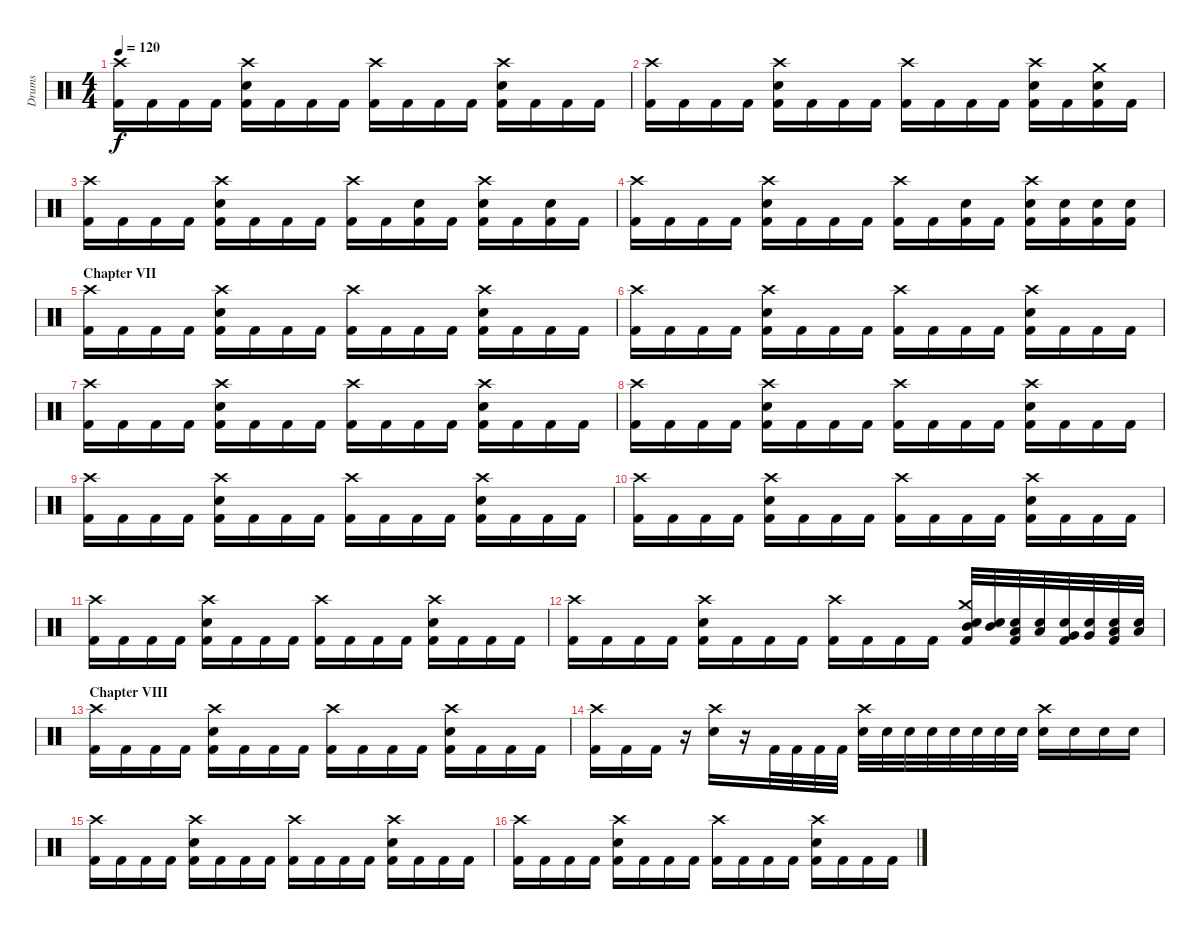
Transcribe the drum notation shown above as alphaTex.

\track ("Drums" "Drums") {instrument percussion}
\staff {score}
\articulation defaults
\ts (4 4)
\tempo 120
\clef neutral
\ks c
("Crash high (hit)" "Kick (hit) 2").16{dy f} "Kick (hit) 2".16 "Kick (hit) 2".16 "Kick (hit) 2".16 ("Crash high (hit)" "Electric Snare (hit)" "Kick (hit) 2").16 "Kick (hit) 2".16 "Kick (hit) 2".16 "Kick (hit) 2".16 ("Crash high (hit)" "Kick (hit) 2").16 "Kick (hit) 2".16 "Kick (hit) 2".16 "Kick (hit) 2".16 ("Crash high (hit)" "Electric Snare (hit)" "Kick (hit) 2").16 "Kick (hit) 2".16 "Kick (hit) 2".16 "Kick (hit) 2".16 |
("Crash high (hit)" "Kick (hit) 2").16 "Kick (hit) 2".16 "Kick (hit) 2".16 "Kick (hit) 2".16 ("Crash high (hit)" "Electric Snare (hit)" "Kick (hit) 2").16 "Kick (hit) 2".16 "Kick (hit) 2".16 "Kick (hit) 2".16 ("Crash high (hit)" "Kick (hit) 2").16 "Kick (hit) 2".16 "Kick (hit) 2".16 "Kick (hit) 2".16 ("Crash high (hit)" "Electric Snare (hit)" "Kick (hit) 2").16 "Kick (hit) 2".16 ("Crash medium (hit)" "Electric Snare (hit)" "Kick (hit) 2").16 "Kick (hit) 2".16 |
("Crash high (hit)" "Kick (hit) 2").16 "Kick (hit) 2".16 "Kick (hit) 2".16 "Kick (hit) 2".16 ("Crash high (hit)" "Electric Snare (hit)" "Kick (hit) 2").16 "Kick (hit) 2".16 "Kick (hit) 2".16 "Kick (hit) 2".16 ("Crash high (hit)" "Kick (hit) 2").16 "Kick (hit) 2".16 ("Electric Snare (hit)" "Kick (hit) 2").16 "Kick (hit) 2".16 ("Crash high (hit)" "Electric Snare (hit)" "Kick (hit) 2").16 "Kick (hit) 2".16 ("Electric Snare (hit)" "Kick (hit) 2").16 "Kick (hit) 2".16 |
("Crash high (hit)" "Kick (hit) 2").16 "Kick (hit) 2".16 "Kick (hit) 2".16 "Kick (hit) 2".16 ("Crash high (hit)" "Electric Snare (hit)" "Kick (hit) 2").16 "Kick (hit) 2".16 "Kick (hit) 2".16 "Kick (hit) 2".16 ("Crash high (hit)" "Kick (hit) 2").16 "Kick (hit) 2".16 ("Electric Snare (hit)" "Kick (hit) 2").16 "Kick (hit) 2".16 ("Crash high (hit)" "Electric Snare (hit)" "Kick (hit) 2").16 ("Electric Snare (hit)" "Kick (hit) 2").16 ("Electric Snare (hit)" "Kick (hit) 2").16 ("Electric Snare (hit)" "Kick (hit) 2").16 |
\section ("" "Chapter VII")
("Crash high (hit)" "Kick (hit) 2").16 "Kick (hit) 2".16 "Kick (hit) 2".16 "Kick (hit) 2".16 ("Crash high (hit)" "Electric Snare (hit)" "Kick (hit) 2").16 "Kick (hit) 2".16 "Kick (hit) 2".16 "Kick (hit) 2".16 ("Crash high (hit)" "Kick (hit) 2").16 "Kick (hit) 2".16 "Kick (hit) 2".16 "Kick (hit) 2".16 ("Crash high (hit)" "Electric Snare (hit)" "Kick (hit) 2").16 "Kick (hit) 2".16 "Kick (hit) 2".16 "Kick (hit) 2".16 |
("Crash high (hit)" "Kick (hit) 2").16 "Kick (hit) 2".16 "Kick (hit) 2".16 "Kick (hit) 2".16 ("Crash high (hit)" "Electric Snare (hit)" "Kick (hit) 2").16 "Kick (hit) 2".16 "Kick (hit) 2".16 "Kick (hit) 2".16 ("Crash high (hit)" "Kick (hit) 2").16 "Kick (hit) 2".16 "Kick (hit) 2".16 "Kick (hit) 2".16 ("Crash high (hit)" "Electric Snare (hit)" "Kick (hit) 2").16 "Kick (hit) 2".16 "Kick (hit) 2".16 "Kick (hit) 2".16 |
("Crash high (hit)" "Kick (hit) 2").16 "Kick (hit) 2".16 "Kick (hit) 2".16 "Kick (hit) 2".16 ("Crash high (hit)" "Electric Snare (hit)" "Kick (hit) 2").16 "Kick (hit) 2".16 "Kick (hit) 2".16 "Kick (hit) 2".16 ("Crash high (hit)" "Kick (hit) 2").16 "Kick (hit) 2".16 "Kick (hit) 2".16 "Kick (hit) 2".16 ("Crash high (hit)" "Electric Snare (hit)" "Kick (hit) 2").16 "Kick (hit) 2".16 "Kick (hit) 2".16 "Kick (hit) 2".16 |
("Crash high (hit)" "Kick (hit) 2").16 "Kick (hit) 2".16 "Kick (hit) 2".16 "Kick (hit) 2".16 ("Crash high (hit)" "Electric Snare (hit)" "Kick (hit) 2").16 "Kick (hit) 2".16 "Kick (hit) 2".16 "Kick (hit) 2".16 ("Crash high (hit)" "Kick (hit) 2").16 "Kick (hit) 2".16 "Kick (hit) 2".16 "Kick (hit) 2".16 ("Crash high (hit)" "Electric Snare (hit)" "Kick (hit) 2").16 "Kick (hit) 2".16 "Kick (hit) 2".16 "Kick (hit) 2".16 |
("Crash high (hit)" "Kick (hit) 2").16 "Kick (hit) 2".16 "Kick (hit) 2".16 "Kick (hit) 2".16 ("Crash high (hit)" "Electric Snare (hit)" "Kick (hit) 2").16 "Kick (hit) 2".16 "Kick (hit) 2".16 "Kick (hit) 2".16 ("Crash high (hit)" "Kick (hit) 2").16 "Kick (hit) 2".16 "Kick (hit) 2".16 "Kick (hit) 2".16 ("Crash high (hit)" "Electric Snare (hit)" "Kick (hit) 2").16 "Kick (hit) 2".16 "Kick (hit) 2".16 "Kick (hit) 2".16 |
("Crash high (hit)" "Kick (hit) 2").16 "Kick (hit) 2".16 "Kick (hit) 2".16 "Kick (hit) 2".16 ("Crash high (hit)" "Electric Snare (hit)" "Kick (hit) 2").16 "Kick (hit) 2".16 "Kick (hit) 2".16 "Kick (hit) 2".16 ("Crash high (hit)" "Kick (hit) 2").16 "Kick (hit) 2".16 "Kick (hit) 2".16 "Kick (hit) 2".16 ("Crash high (hit)" "Electric Snare (hit)" "Kick (hit) 2").16 "Kick (hit) 2".16 "Kick (hit) 2".16 "Kick (hit) 2".16 |
("Crash high (hit)" "Kick (hit) 2").16 "Kick (hit) 2".16 "Kick (hit) 2".16 "Kick (hit) 2".16 ("Crash high (hit)" "Electric Snare (hit)" "Kick (hit) 2").16 "Kick (hit) 2".16 "Kick (hit) 2".16 "Kick (hit) 2".16 ("Crash high (hit)" "Kick (hit) 2").16 "Kick (hit) 2".16 "Kick (hit) 2".16 "Kick (hit) 2".16 ("Crash high (hit)" "Electric Snare (hit)" "Kick (hit) 2").16 "Kick (hit) 2".16 "Kick (hit) 2".16 "Kick (hit) 2".16 |
("Crash high (hit)" "Kick (hit) 2").16 "Kick (hit) 2".16 "Kick (hit) 2".16 "Kick (hit) 2".16 ("Crash high (hit)" "Electric Snare (hit)" "Kick (hit) 2").16 "Kick (hit) 2".16 "Kick (hit) 2".16 "Kick (hit) 2".16 ("Crash high (hit)" "Kick (hit) 2").16 "Kick (hit) 2".16 "Kick (hit) 2".16 "Kick (hit) 2".16 ("Crash medium (hit)" "Electric Snare (hit)" "Mid Tom (hit)" "Kick (hit) 2").32 ("Electric Snare (hit)" "Mid Tom (hit)").32 ("Electric Snare (hit)" "Low Tom (hit)" "Kick (hit) 2").32 ("Electric Snare (hit)" "Low Tom (hit)").32 ("Electric Snare (hit)" "Very Low Tom (hit)" "Kick (hit) 2").32 ("Electric Snare (hit)" "Very Low Tom (hit)").32 ("Electric Snare (hit)" "Low Floor Tom (hit)" "Kick (hit) 2").32 ("Electric Snare (hit)" "Low Floor Tom (hit)").32 |
\section ("" "Chapter VIII")
("Crash high (hit)" "Kick (hit) 2").16 "Kick (hit) 2".16 "Kick (hit) 2".16 "Kick (hit) 2".16 ("Crash high (hit)" "Electric Snare (hit)" "Kick (hit) 2").16 "Kick (hit) 2".16 "Kick (hit) 2".16 "Kick (hit) 2".16 ("Crash high (hit)" "Kick (hit) 2").16 "Kick (hit) 2".16 "Kick (hit) 2".16 "Kick (hit) 2".16 ("Crash high (hit)" "Electric Snare (hit)" "Kick (hit) 2").16 "Kick (hit) 2".16 "Kick (hit) 2".16 "Kick (hit) 2".16 |
("Kick (hit) 2" "Crash high (hit)").16 "Kick (hit) 2".16 "Kick (hit) 2".16 r.16 ("Electric Snare (hit)" "Crash high (hit)").16 r.16 "Kick (hit) 2".32 "Kick (hit) 2".32 "Kick (hit) 2".32 "Kick (hit) 2".32 ("Electric Snare (hit)" "Crash high (hit)").32 "Electric Snare (hit)".32 "Electric Snare (hit)".32 "Electric Snare (hit)".32 "Electric Snare (hit)".32 "Electric Snare (hit)".32 "Electric Snare (hit)".32 "Electric Snare (hit)".32 ("Electric Snare (hit)" "Crash high (hit)").16 "Electric Snare (hit)".16 "Electric Snare (hit)".16 "Electric Snare (hit)".16 |
("Crash high (hit)" "Kick (hit) 2").16 "Kick (hit) 2".16 "Kick (hit) 2".16 "Kick (hit) 2".16 ("Crash high (hit)" "Electric Snare (hit)" "Kick (hit) 2").16 "Kick (hit) 2".16 "Kick (hit) 2".16 "Kick (hit) 2".16 ("Crash high (hit)" "Kick (hit) 2").16 "Kick (hit) 2".16 "Kick (hit) 2".16 "Kick (hit) 2".16 ("Crash high (hit)" "Electric Snare (hit)" "Kick (hit) 2").16 "Kick (hit) 2".16 "Kick (hit) 2".16 "Kick (hit) 2".16 |
("Crash high (hit)" "Kick (hit) 2").16 "Kick (hit) 2".16 "Kick (hit) 2".16 "Kick (hit) 2".16 ("Crash high (hit)" "Electric Snare (hit)" "Kick (hit) 2").16 "Kick (hit) 2".16 "Kick (hit) 2".16 "Kick (hit) 2".16 ("Crash high (hit)" "Kick (hit) 2").16 "Kick (hit) 2".16 "Kick (hit) 2".16 "Kick (hit) 2".16 ("Crash high (hit)" "Electric Snare (hit)" "Kick (hit) 2").16 "Kick (hit) 2".16 "Kick (hit) 2".16 "Kick (hit) 2".16
